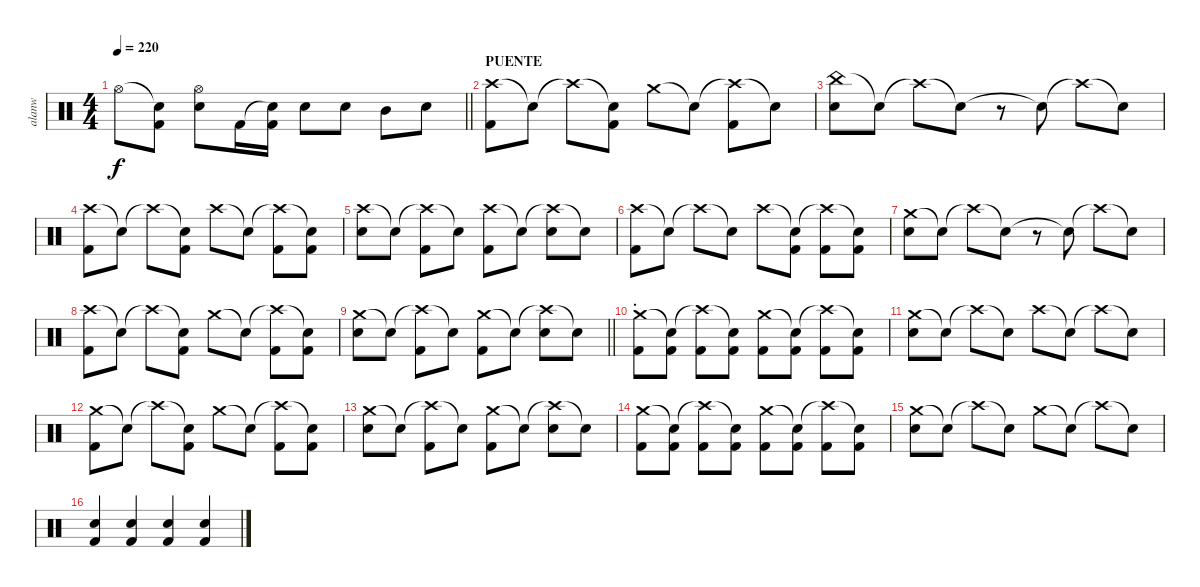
\track ("alanw" "alanw") {instrument percussion}
\staff {score}
\articulation defaults
\ts (4 4)
\tempo 220
\clef neutral
\barLineRight lightlight
\ks c "Hi-Hat (open)".8{dy f}
("Snare (hit)"{t} "Kick (hit) 2").8 ("Hi-Hat (open)" "Electric Snare (hit)").8 "Kick (hit) 2".16 ("Snare (hit)"{t} "Kick (hit) 2").16 "Electric Snare (hit)".8 "Electric Snare (hit)".8 "Mid Tom (hit)".8 "Electric Snare (hit)".8 |
\section ("" "PUENTE")
("Crash high (hit)" "Kick (hit) 2").8 "Snare (hit)"{t}.8 "Crash high (hit)"{t}.8 ("Snare (hit)"{t} "Kick (hit) 2").8 "Crash medium (hit)".8 "Snare (hit)"{t}.8 ("Crash high (hit)"{t} "Kick (hit) 2").8 "Snare (hit)"{t}.8 |
("China (hit)" "Electric Snare (hit)").8 "Snare (hit)"{t}.8 "Crash high (hit)"{t}.8 "Snare (hit)"{t}.8 r.8 "Snare (hit)"{t}.8 "Crash high (hit)"{t}.8 "Snare (hit)"{t}.8 |
("Crash high (hit)" "Kick (hit) 2").8 "Snare (hit)"{t}.8 "Crash high (hit)"{t}.8 ("Snare (hit)"{t} "Kick (hit) 2").8 "Crash high (hit)".8 "Snare (hit)"{t}.8 ("Crash high (hit)"{t} "Kick (hit) 2").8 ("Snare (hit)"{t} "Kick (hit) 2").8 |
("Crash high (hit)" "Electric Snare (hit)").8 "Snare (hit)"{t}.8 ("Crash high (hit)"{t} "Kick (hit) 2").8 "Snare (hit)"{t}.8 ("Crash high (hit)" "Kick (hit) 2").8 "Snare (hit)"{t}.8 ("Crash high (hit)"{t} "Electric Snare (hit)").8 "Snare (hit)"{t}.8 |
("Crash high (hit)" "Kick (hit) 2").8 "Snare (hit)"{t}.8 "Crash high (hit)"{t}.8 "Snare (hit)"{t}.8 "Crash high (hit)".8 ("Snare (hit)"{t} "Kick (hit) 2").8 ("Crash high (hit)"{t} "Kick (hit) 2").8 ("Snare (hit)"{t} "Kick (hit) 2").8 |
("Crash medium (hit)" "Electric Snare (hit)").8 "Snare (hit)"{t}.8 "Crash high (hit)"{t}.8 "Snare (hit)"{t}.8 r.8 "Snare (hit)"{t}.8 "Crash high (hit)"{t}.8 "Snare (hit)"{t}.8 |
("Crash high (hit)" "Kick (hit) 2").8 "Snare (hit)"{t}.8 "Crash high (hit)"{t}.8 ("Snare (hit)"{t} "Kick (hit) 2").8 "Crash medium (hit)".8 "Snare (hit)"{t}.8 ("Crash high (hit)"{t} "Kick (hit) 2").8 ("Snare (hit)"{t} "Kick (hit) 2").8 |
\barLineRight lightlight
("Crash medium (hit)" "Electric Snare (hit)").8 "Snare (hit)"{t}.8 ("Crash high (hit)"{t} "Kick (hit) 2").8 "Snare (hit)"{t}.8 ("Crash medium (hit)" "Kick (hit) 2").8 "Snare (hit)"{t}.8 ("Crash high (hit)"{t} "Electric Snare (hit)").8 "Snare (hit)"{t}.8 |
\section ("" ".")
("Crash medium (hit)" "Kick (hit) 2").8 ("Snare (hit)"{t} "Kick (hit) 2").8 ("Crash high (hit)"{t} "Kick (hit) 2").8 ("Snare (hit)"{t} "Kick (hit) 2").8 ("Crash medium (hit)" "Kick (hit) 2").8 ("Snare (hit)"{t} "Kick (hit) 2").8 ("Crash high (hit)"{t} "Kick (hit) 2").8 ("Snare (hit)"{t} "Kick (hit) 2").8 |
("Crash medium (hit)" "Electric Snare (hit)").8 "Snare (hit)"{t}.8 "Crash high (hit)"{t}.8 "Snare (hit)"{t}.8 "Crash high (hit)".8 "Snare (hit)"{t}.8 "Crash high (hit)"{t}.8 "Snare (hit)"{t}.8 |
("Crash medium (hit)" "Kick (hit) 2").8 "Snare (hit)"{t}.8 "Crash high (hit)"{t}.8 ("Snare (hit)"{t} "Kick (hit) 2").8 "Crash medium (hit)".8 "Snare (hit)"{t}.8 ("Crash high (hit)"{t} "Kick (hit) 2").8 ("Snare (hit)"{t} "Kick (hit) 2").8 |
("Crash medium (hit)" "Electric Snare (hit)").8 "Snare (hit)"{t}.8 ("Crash high (hit)"{t} "Kick (hit) 2").8 "Snare (hit)"{t}.8 ("Crash medium (hit)" "Kick (hit) 2").8 "Snare (hit)"{t}.8 ("Crash high (hit)"{t} "Electric Snare (hit)").8 "Snare (hit)"{t}.8 |
("Crash medium (hit)" "Kick (hit) 2").8 ("Snare (hit)"{t} "Kick (hit) 2").8 ("Crash high (hit)"{t} "Kick (hit) 2").8 ("Snare (hit)"{t} "Kick (hit) 2").8 ("Crash medium (hit)" "Kick (hit) 2").8 ("Snare (hit)"{t} "Kick (hit) 2").8 ("Crash high (hit)"{t} "Kick (hit) 2").8 ("Snare (hit)"{t} "Kick (hit) 2").8 |
("Crash medium (hit)" "Electric Snare (hit)").8 "Snare (hit)"{t}.8 "Crash high (hit)"{t}.8 "Snare (hit)"{t}.8 "Crash medium (hit)".8 "Snare (hit)"{t}.8 "Crash high (hit)"{t}.8 "Snare (hit)"{t}.8 |
("Electric Snare (hit)" "Kick (hit) 2").4 ("Electric Snare (hit)" "Kick (hit) 2").4 ("Electric Snare (hit)" "Kick (hit) 2").4 ("Electric Snare (hit)" "Kick (hit) 2").4
